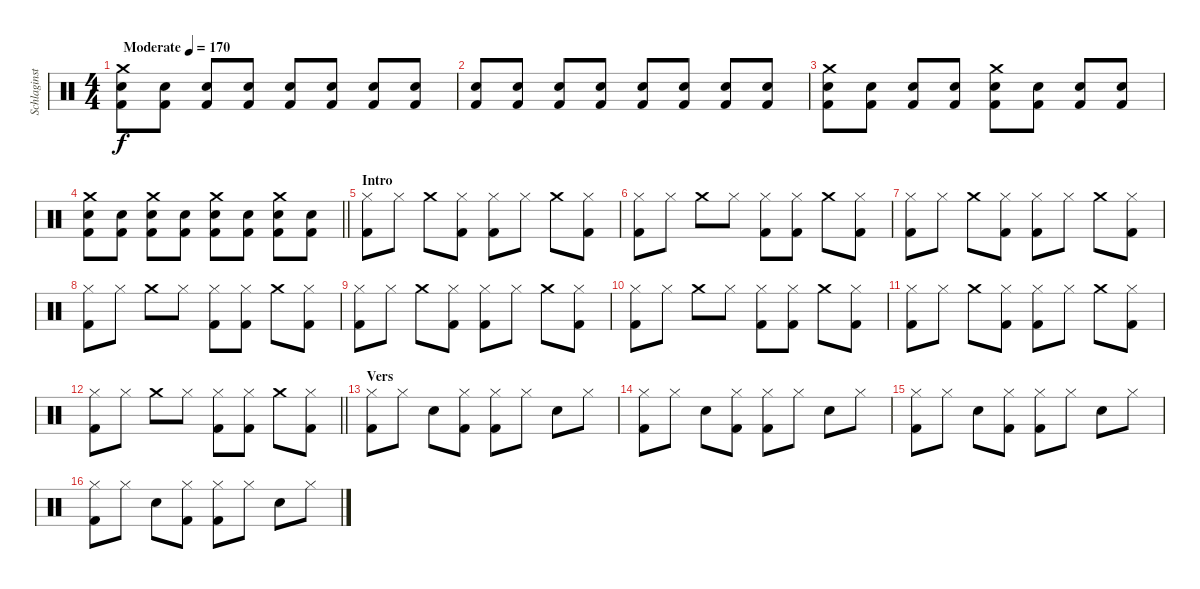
\track ("Schlaginstrumente - Auswahl" "Schlaginst") {instrument percussion}
\staff {score}
\articulation defaults
\ts (4 4)
\tempo (170 "Moderate")
\clef neutral
\ks c
("Crash medium (hit)" "Snare (hit) 2" "Kick (hit) 2").8{dy f} ("Snare (hit) 2" "Kick (hit) 2").8 ("Snare (hit) 2" "Kick (hit) 2").8 ("Snare (hit) 2" "Kick (hit) 2").8 ("Snare (hit) 2" "Kick (hit) 2").8 ("Snare (hit) 2" "Kick (hit) 2").8 ("Snare (hit) 2" "Kick (hit) 2").8 ("Snare (hit) 2" "Kick (hit) 2").8 |
("Snare (hit) 2" "Kick (hit) 2").8 ("Snare (hit) 2" "Kick (hit) 2").8 ("Snare (hit) 2" "Kick (hit) 2").8 ("Snare (hit) 2" "Kick (hit) 2").8 ("Snare (hit) 2" "Kick (hit) 2").8 ("Snare (hit) 2" "Kick (hit) 2").8 ("Snare (hit) 2" "Kick (hit) 2").8 ("Snare (hit) 2" "Kick (hit) 2").8 |
("Crash medium (hit)" "Snare (hit) 2" "Kick (hit) 2").8 ("Snare (hit) 2" "Kick (hit) 2").8 ("Snare (hit) 2" "Kick (hit) 2").8 ("Snare (hit) 2" "Kick (hit) 2").8 ("Crash medium (hit)" "Snare (hit) 2" "Kick (hit) 2").8 ("Snare (hit) 2" "Kick (hit) 2").8 ("Snare (hit) 2" "Kick (hit) 2").8 ("Snare (hit) 2" "Kick (hit) 2").8 |
\barLineRight lightlight
("Crash medium (hit)" "Snare (hit) 2" "Kick (hit) 2").8 ("Snare (hit) 2" "Kick (hit) 2").8 ("Crash medium (hit)" "Snare (hit) 2" "Kick (hit) 2").8 ("Snare (hit) 2" "Kick (hit) 2").8 ("Crash medium (hit)" "Snare (hit) 2" "Kick (hit) 2").8 ("Snare (hit) 2" "Kick (hit) 2").8 ("Crash medium (hit)" "Snare (hit) 2" "Kick (hit) 2").8 ("Snare (hit) 2" "Kick (hit) 2").8 |
\section ("" "Intro")
("Hi-Hat (closed)" "Kick (hit) 2").8 "Hi-Hat (closed)".8 "Crash medium (hit)".8 ("Hi-Hat (closed)" "Kick (hit) 2").8 ("Hi-Hat (closed)" "Kick (hit) 2").8 "Hi-Hat (closed)".8 "Crash medium (hit)".8 ("Hi-Hat (closed)" "Kick (hit) 2").8 |
("Hi-Hat (closed)" "Kick (hit) 2").8 "Hi-Hat (closed)".8 "Crash medium (hit)".8 "Hi-Hat (closed)".8 ("Hi-Hat (closed)" "Kick (hit) 2").8 ("Hi-Hat (closed)" "Kick (hit) 2").8 "Crash medium (hit)".8 ("Hi-Hat (closed)" "Kick (hit) 2").8 |
("Hi-Hat (closed)" "Kick (hit) 2").8 "Hi-Hat (closed)".8 "Crash medium (hit)".8 ("Hi-Hat (closed)" "Kick (hit) 2").8 ("Hi-Hat (closed)" "Kick (hit) 2").8 "Hi-Hat (closed)".8 "Crash medium (hit)".8 ("Hi-Hat (closed)" "Kick (hit) 2").8 |
("Hi-Hat (closed)" "Kick (hit) 2").8 "Hi-Hat (closed)".8 "Crash medium (hit)".8 "Hi-Hat (closed)".8 ("Hi-Hat (closed)" "Kick (hit) 2").8 ("Hi-Hat (closed)" "Kick (hit) 2").8 "Crash medium (hit)".8 ("Hi-Hat (closed)" "Kick (hit) 2").8 |
("Hi-Hat (closed)" "Kick (hit) 2").8 "Hi-Hat (closed)".8 "Crash medium (hit)".8 ("Hi-Hat (closed)" "Kick (hit) 2").8 ("Hi-Hat (closed)" "Kick (hit) 2").8 "Hi-Hat (closed)".8 "Crash medium (hit)".8 ("Hi-Hat (closed)" "Kick (hit) 2").8 |
("Hi-Hat (closed)" "Kick (hit) 2").8 "Hi-Hat (closed)".8 "Crash medium (hit)".8 "Hi-Hat (closed)".8 ("Hi-Hat (closed)" "Kick (hit) 2").8 ("Hi-Hat (closed)" "Kick (hit) 2").8 "Crash medium (hit)".8 ("Hi-Hat (closed)" "Kick (hit) 2").8 |
("Hi-Hat (closed)" "Kick (hit) 2").8 "Hi-Hat (closed)".8 "Crash medium (hit)".8 ("Hi-Hat (closed)" "Kick (hit) 2").8 ("Hi-Hat (closed)" "Kick (hit) 2").8 "Hi-Hat (closed)".8 "Crash medium (hit)".8 ("Hi-Hat (closed)" "Kick (hit) 2").8 |
\barLineRight lightlight
("Hi-Hat (closed)" "Kick (hit) 2").8 "Hi-Hat (closed)".8 "Crash medium (hit)".8 "Hi-Hat (closed)".8 ("Hi-Hat (closed)" "Kick (hit) 2").8 ("Hi-Hat (closed)" "Kick (hit) 2").8 "Crash medium (hit)".8 ("Hi-Hat (closed)" "Kick (hit) 2").8 |
\section ("" "Vers")
("Hi-Hat (closed)" "Kick (hit) 2").8 "Hi-Hat (closed)".8 "Snare (hit) 2".8 ("Hi-Hat (closed)" "Kick (hit) 2").8 ("Hi-Hat (closed)" "Kick (hit) 2").8 "Hi-Hat (closed)".8 "Snare (hit) 2".8 "Hi-Hat (closed)".8 |
("Hi-Hat (closed)" "Kick (hit) 2").8 "Hi-Hat (closed)".8 "Snare (hit) 2".8 ("Hi-Hat (closed)" "Kick (hit) 2").8 ("Hi-Hat (closed)" "Kick (hit) 2").8 "Hi-Hat (closed)".8 "Snare (hit) 2".8 "Hi-Hat (closed)".8 |
("Hi-Hat (closed)" "Kick (hit) 2").8 "Hi-Hat (closed)".8 "Snare (hit) 2".8 ("Hi-Hat (closed)" "Kick (hit) 2").8 ("Hi-Hat (closed)" "Kick (hit) 2").8 "Hi-Hat (closed)".8 "Snare (hit) 2".8 "Hi-Hat (closed)".8 |
("Hi-Hat (closed)" "Kick (hit) 2").8 "Hi-Hat (closed)".8 "Snare (hit) 2".8 ("Hi-Hat (closed)" "Kick (hit) 2").8 ("Hi-Hat (closed)" "Kick (hit) 2").8 "Hi-Hat (closed)".8 "Snare (hit) 2".8 "Hi-Hat (closed)".8
